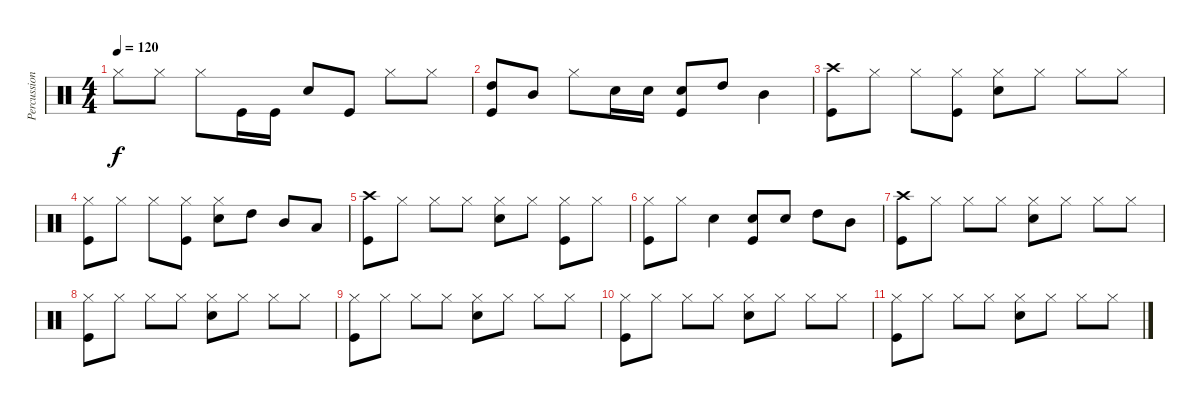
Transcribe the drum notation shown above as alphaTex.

\track ("Percussion" "Percussion") {instrument percussion}
\staff {score}
\articulation defaults
\ts (4 4)
\tempo 120
\clef neutral
\ks c "Hi-Hat (closed)".8{dy f} "Hi-Hat (closed)".8 "Hi-Hat (closed)".8 "Kick (hit)".16 "Kick (hit)".16 "Snare (hit) 2".8 "Kick (hit)".8 "Hi-Hat (closed)".8 "Hi-Hat (closed)".8
|
("High Tom (hit)" "Kick (hit)").8 "Mid Tom (hit)".8 "Hi-Hat (closed)".8 "Snare (hit) 2".16 "Snare (hit) 2".16 ("Snare (hit) 2" "Kick (hit)").8 "High Tom (hit)".8 "Mid Tom (hit)".4 |
("Crash high (hit)" "Kick (hit)").8 "Hi-Hat (closed)".8 "Hi-Hat (closed)".8 ("Hi-Hat (closed)" "Kick (hit)").8 ("Hi-Hat (closed)" "Snare (hit) 2").8 "Hi-Hat (closed)".8 "Hi-Hat (closed)".8 "Hi-Hat (closed)".8 |
("Hi-Hat (closed)" "Kick (hit)").8 "Hi-Hat (closed)".8 "Hi-Hat (closed)".8 ("Hi-Hat (closed)" "Kick (hit)").8 ("Hi-Hat (closed)" "Snare (hit) 2").8 "High Tom (hit)".8 "Mid Tom (hit)".8 "Low Floor Tom (hit)".8 |
("Crash high (hit)" "Kick (hit)").8 "Hi-Hat (closed)".8 "Hi-Hat (closed)".8 "Hi-Hat (closed)".8 ("Hi-Hat (closed)" "Snare (hit) 2").8 "Hi-Hat (closed)".8 ("Hi-Hat (closed)" "Kick (hit)").8 "Hi-Hat (closed)".8 |
("Hi-Hat (closed)" "Kick (hit)").8 "Hi-Hat (closed)".8 "Snare (hit) 2".4 ("Snare (hit) 2" "Kick (hit)").8 "Snare (hit) 2".8 "High Tom (hit)".8 "Mid Tom (hit)".8 |
("Crash high (hit)" "Kick (hit)").8 "Hi-Hat (closed)".8 "Hi-Hat (closed)".8 "Hi-Hat (closed)".8 ("Hi-Hat (closed)" "Snare (hit) 2").8 "Hi-Hat (closed)".8 "Hi-Hat (closed)".8 "Hi-Hat (closed)".8 |
("Hi-Hat (closed)" "Kick (hit)").8 "Hi-Hat (closed)".8 "Hi-Hat (closed)".8 "Hi-Hat (closed)".8 ("Hi-Hat (closed)" "Snare (hit) 2").8 "Hi-Hat (closed)".8 "Hi-Hat (closed)".8 "Hi-Hat (closed)".8 |
("Hi-Hat (closed)" "Kick (hit)").8 "Hi-Hat (closed)".8 "Hi-Hat (closed)".8 "Hi-Hat (closed)".8 ("Hi-Hat (closed)" "Snare (hit) 2").8 "Hi-Hat (closed)".8 "Hi-Hat (closed)".8 "Hi-Hat (closed)".8 |
("Hi-Hat (closed)" "Kick (hit)").8 "Hi-Hat (closed)".8 "Hi-Hat (closed)".8 "Hi-Hat (closed)".8 ("Hi-Hat (closed)" "Snare (hit) 2").8 "Hi-Hat (closed)".8 "Hi-Hat (closed)".8 "Hi-Hat (closed)".8 |
("Hi-Hat (closed)" "Kick (hit)").8 "Hi-Hat (closed)".8 "Hi-Hat (closed)".8 "Hi-Hat (closed)".8 ("Hi-Hat (closed)" "Snare (hit) 2").8 "Hi-Hat (closed)".8 "Hi-Hat (closed)".8 "Hi-Hat (closed)".8
